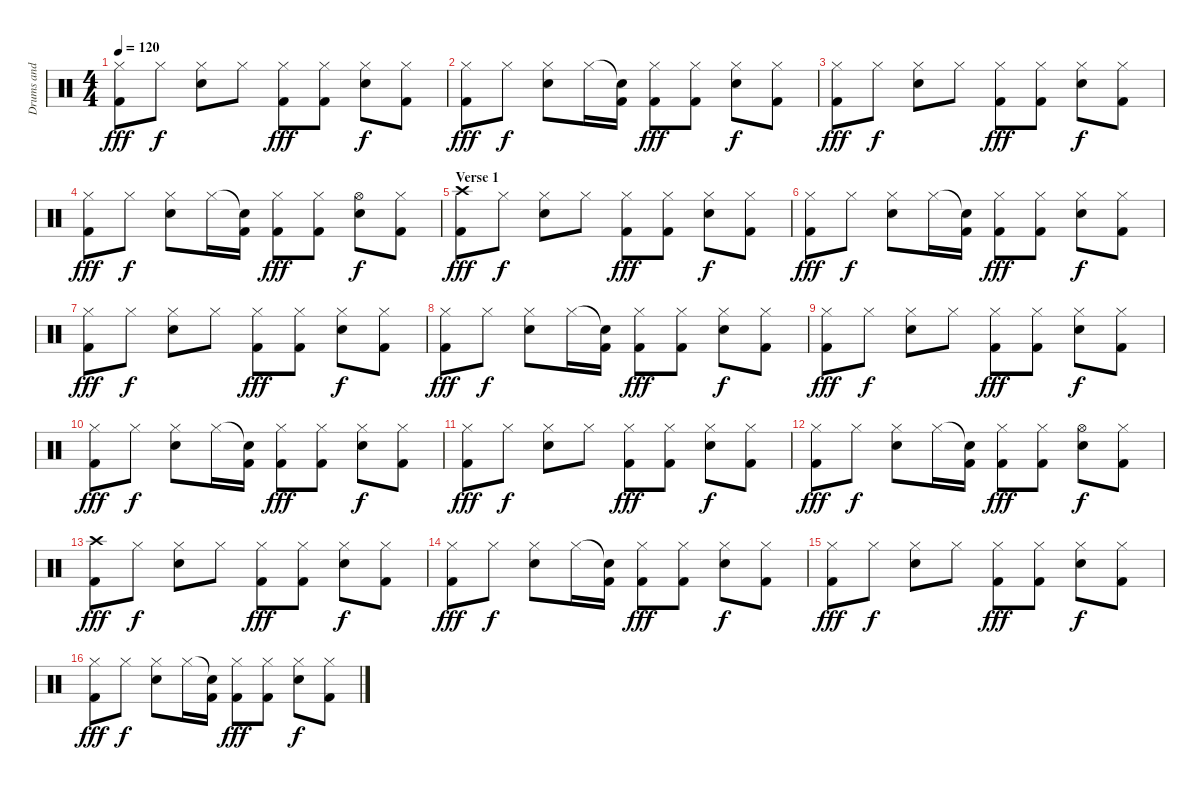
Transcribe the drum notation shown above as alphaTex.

\track ("Drums and Percussion" "Drums and ") {instrument percussion}
\staff {score}
\articulation defaults
\ts (4 4)
\tempo 120
\clef neutral
\ks c
("Hi-Hat (closed)" "Kick (hit) 2").8{dy fff} "Hi-Hat (closed)".8{dy f} ("Hi-Hat (closed)" "Snare (hit) 2").8 "Hi-Hat (closed)".8 ("Hi-Hat (closed)" "Kick (hit) 2").8{dy fff} ("Hi-Hat (closed)" "Kick (hit) 2").8 ("Hi-Hat (closed)" "Snare (hit) 2").8{dy f} ("Hi-Hat (closed)" "Kick (hit) 2").8 |
("Hi-Hat (closed)" "Kick (hit) 2").8{dy fff} "Hi-Hat (closed)".8{dy f} ("Hi-Hat (closed)" "Snare (hit) 2").8 "Hi-Hat (closed)".16 ("Snare (hit)"{t} "Kick (hit) 2").16 ("Hi-Hat (closed)" "Kick (hit) 2").8{dy fff} ("Hi-Hat (closed)" "Kick (hit) 2").8 ("Hi-Hat (closed)" "Snare (hit) 2").8{dy f} ("Hi-Hat (closed)" "Kick (hit) 2").8 |
("Hi-Hat (closed)" "Kick (hit) 2").8{dy fff} "Hi-Hat (closed)".8{dy f} ("Hi-Hat (closed)" "Snare (hit) 2").8 "Hi-Hat (closed)".8 ("Hi-Hat (closed)" "Kick (hit) 2").8{dy fff} ("Hi-Hat (closed)" "Kick (hit) 2").8 ("Hi-Hat (closed)" "Snare (hit) 2").8{dy f} ("Hi-Hat (closed)" "Kick (hit) 2").8 |
("Hi-Hat (closed)" "Kick (hit) 2").8{dy fff} "Hi-Hat (closed)".8{dy f} ("Hi-Hat (closed)" "Snare (hit) 2").8 "Hi-Hat (closed)".16 ("Snare (hit)"{t} "Kick (hit) 2").16 ("Hi-Hat (closed)" "Kick (hit) 2").8{dy fff} ("Hi-Hat (closed)" "Kick (hit) 2").8 ("Hi-Hat (open)" "Snare (hit) 2").8{dy f} ("Hi-Hat (closed)" "Kick (hit) 2").8 |
\section ("" "Verse 1")
("Crash high (hit)" "Kick (hit) 2").8{dy fff} "Hi-Hat (closed)".8{dy f} ("Hi-Hat (closed)" "Snare (hit) 2").8 "Hi-Hat (closed)".8 ("Hi-Hat (closed)" "Kick (hit) 2").8{dy fff} ("Hi-Hat (closed)" "Kick (hit) 2").8 ("Hi-Hat (closed)" "Snare (hit) 2").8{dy f} ("Hi-Hat (closed)" "Kick (hit) 2").8 |
("Hi-Hat (closed)" "Kick (hit) 2").8{dy fff} "Hi-Hat (closed)".8{dy f} ("Hi-Hat (closed)" "Snare (hit) 2").8 "Hi-Hat (closed)".16 ("Snare (hit)"{t} "Kick (hit) 2").16 ("Hi-Hat (closed)" "Kick (hit) 2").8{dy fff} ("Hi-Hat (closed)" "Kick (hit) 2").8 ("Hi-Hat (closed)" "Snare (hit) 2").8{dy f} ("Hi-Hat (closed)" "Kick (hit) 2").8 |
("Hi-Hat (closed)" "Kick (hit) 2").8{dy fff} "Hi-Hat (closed)".8{dy f} ("Hi-Hat (closed)" "Snare (hit) 2").8 "Hi-Hat (closed)".8 ("Hi-Hat (closed)" "Kick (hit) 2").8{dy fff} ("Hi-Hat (closed)" "Kick (hit) 2").8 ("Hi-Hat (closed)" "Snare (hit) 2").8{dy f} ("Hi-Hat (closed)" "Kick (hit) 2").8 |
("Hi-Hat (closed)" "Kick (hit) 2").8{dy fff} "Hi-Hat (closed)".8{dy f} ("Hi-Hat (closed)" "Snare (hit) 2").8 "Hi-Hat (closed)".16 ("Snare (hit)"{t} "Kick (hit) 2").16 ("Hi-Hat (closed)" "Kick (hit) 2").8{dy fff} ("Hi-Hat (closed)" "Kick (hit) 2").8 ("Hi-Hat (closed)" "Snare (hit) 2").8{dy f} ("Hi-Hat (closed)" "Kick (hit) 2").8 |
("Hi-Hat (closed)" "Kick (hit) 2").8{dy fff} "Hi-Hat (closed)".8{dy f} ("Hi-Hat (closed)" "Snare (hit) 2").8 "Hi-Hat (closed)".8 ("Hi-Hat (closed)" "Kick (hit) 2").8{dy fff} ("Hi-Hat (closed)" "Kick (hit) 2").8 ("Hi-Hat (closed)" "Snare (hit) 2").8{dy f} ("Hi-Hat (closed)" "Kick (hit) 2").8 |
("Hi-Hat (closed)" "Kick (hit) 2").8{dy fff} "Hi-Hat (closed)".8{dy f} ("Hi-Hat (closed)" "Snare (hit) 2").8 "Hi-Hat (closed)".16 ("Snare (hit)"{t} "Kick (hit) 2").16 ("Hi-Hat (closed)" "Kick (hit) 2").8{dy fff} ("Hi-Hat (closed)" "Kick (hit) 2").8 ("Hi-Hat (closed)" "Snare (hit) 2").8{dy f} ("Hi-Hat (closed)" "Kick (hit) 2").8 |
("Hi-Hat (closed)" "Kick (hit) 2").8{dy fff} "Hi-Hat (closed)".8{dy f} ("Hi-Hat (closed)" "Snare (hit) 2").8 "Hi-Hat (closed)".8 ("Hi-Hat (closed)" "Kick (hit) 2").8{dy fff} ("Hi-Hat (closed)" "Kick (hit) 2").8 ("Hi-Hat (closed)" "Snare (hit) 2").8{dy f} ("Hi-Hat (closed)" "Kick (hit) 2").8 |
("Hi-Hat (closed)" "Kick (hit) 2").8{dy fff} "Hi-Hat (closed)".8{dy f} ("Hi-Hat (closed)" "Snare (hit) 2").8 "Hi-Hat (closed)".16 ("Snare (hit)"{t} "Kick (hit) 2").16 ("Hi-Hat (closed)" "Kick (hit) 2").8{dy fff} ("Hi-Hat (closed)" "Kick (hit) 2").8 ("Hi-Hat (open)" "Snare (hit) 2").8{dy f} ("Hi-Hat (closed)" "Kick (hit) 2").8 |
("Crash high (hit)" "Kick (hit) 2").8{dy fff} "Hi-Hat (closed)".8{dy f} ("Hi-Hat (closed)" "Snare (hit) 2").8 "Hi-Hat (closed)".8 ("Hi-Hat (closed)" "Kick (hit) 2").8{dy fff} ("Hi-Hat (closed)" "Kick (hit) 2").8 ("Hi-Hat (closed)" "Snare (hit) 2").8{dy f} ("Hi-Hat (closed)" "Kick (hit) 2").8 |
("Hi-Hat (closed)" "Kick (hit) 2").8{dy fff} "Hi-Hat (closed)".8{dy f} ("Hi-Hat (closed)" "Snare (hit) 2").8 "Hi-Hat (closed)".16 ("Snare (hit)"{t} "Kick (hit) 2").16 ("Hi-Hat (closed)" "Kick (hit) 2").8{dy fff} ("Hi-Hat (closed)" "Kick (hit) 2").8 ("Hi-Hat (closed)" "Snare (hit) 2").8{dy f} ("Hi-Hat (closed)" "Kick (hit) 2").8 |
("Hi-Hat (closed)" "Kick (hit) 2").8{dy fff} "Hi-Hat (closed)".8{dy f} ("Hi-Hat (closed)" "Snare (hit) 2").8 "Hi-Hat (closed)".8 ("Hi-Hat (closed)" "Kick (hit) 2").8{dy fff} ("Hi-Hat (closed)" "Kick (hit) 2").8 ("Hi-Hat (closed)" "Snare (hit) 2").8{dy f} ("Hi-Hat (closed)" "Kick (hit) 2").8 |
("Hi-Hat (closed)" "Kick (hit) 2").8{dy fff} "Hi-Hat (closed)".8{dy f} ("Hi-Hat (closed)" "Snare (hit) 2").8 "Hi-Hat (closed)".16 ("Snare (hit)"{t} "Kick (hit) 2").16 ("Hi-Hat (closed)" "Kick (hit) 2").8{dy fff} ("Hi-Hat (closed)" "Kick (hit) 2").8 ("Hi-Hat (closed)" "Snare (hit) 2").8{dy f} ("Hi-Hat (closed)" "Kick (hit) 2").8
